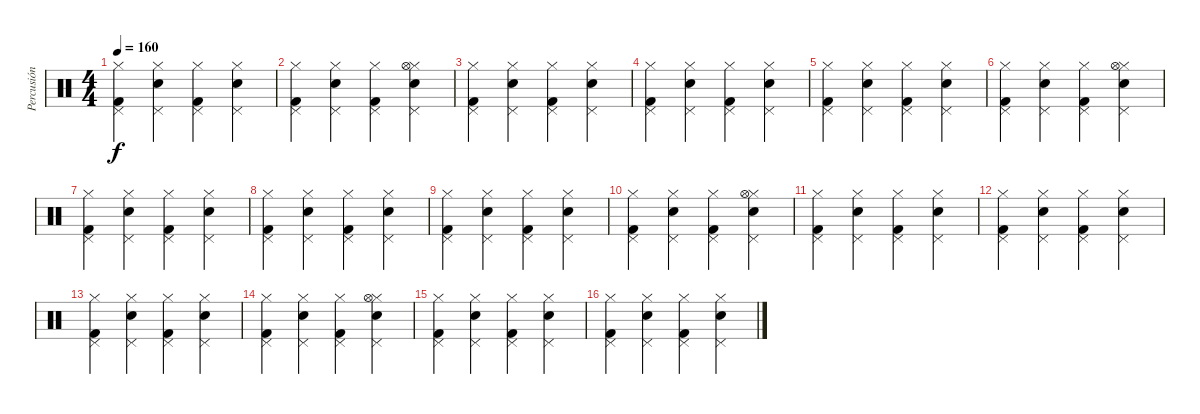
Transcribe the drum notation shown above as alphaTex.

\track ("Percusión" "Percusión") {instrument percussion}
\staff {score}
\articulation defaults
\ts (4 4)
\tempo 160
\clef neutral
\ks c
("Hi-Hat (closed)" "Kick (hit) 2" "Pedal Hi-Hat (hit)").4{dy f} ("Hi-Hat (closed)" "Snare (hit) 2" "Pedal Hi-Hat (hit)").4 ("Hi-Hat (closed)" "Kick (hit) 2" "Pedal Hi-Hat (hit)").4 ("Hi-Hat (closed)" "Snare (hit) 2" "Pedal Hi-Hat (hit)").4 |
("Hi-Hat (closed)" "Kick (hit) 2" "Pedal Hi-Hat (hit)").4 ("Hi-Hat (closed)" "Snare (hit) 2" "Pedal Hi-Hat (hit)").4 ("Hi-Hat (closed)" "Kick (hit) 2" "Pedal Hi-Hat (hit)").4 ("Hi-Hat (closed)" "Snare (hit) 2" "Pedal Hi-Hat (hit)" "Hi-Hat (open)").4 |
("Hi-Hat (closed)" "Kick (hit) 2" "Pedal Hi-Hat (hit)").4 ("Hi-Hat (closed)" "Snare (hit) 2" "Pedal Hi-Hat (hit)").4 ("Hi-Hat (closed)" "Kick (hit) 2" "Pedal Hi-Hat (hit)").4 ("Hi-Hat (closed)" "Snare (hit) 2" "Pedal Hi-Hat (hit)").4 |
("Hi-Hat (closed)" "Kick (hit) 2" "Pedal Hi-Hat (hit)").4 ("Hi-Hat (closed)" "Snare (hit) 2" "Pedal Hi-Hat (hit)").4 ("Hi-Hat (closed)" "Kick (hit) 2" "Pedal Hi-Hat (hit)").4 ("Hi-Hat (closed)" "Snare (hit) 2" "Pedal Hi-Hat (hit)").4 |
("Hi-Hat (closed)" "Kick (hit) 2" "Pedal Hi-Hat (hit)").4 ("Hi-Hat (closed)" "Snare (hit) 2" "Pedal Hi-Hat (hit)").4 ("Hi-Hat (closed)" "Kick (hit) 2" "Pedal Hi-Hat (hit)").4 ("Hi-Hat (closed)" "Snare (hit) 2" "Pedal Hi-Hat (hit)").4 |
("Hi-Hat (closed)" "Kick (hit) 2" "Pedal Hi-Hat (hit)").4 ("Hi-Hat (closed)" "Snare (hit) 2" "Pedal Hi-Hat (hit)").4 ("Hi-Hat (closed)" "Kick (hit) 2" "Pedal Hi-Hat (hit)").4 ("Hi-Hat (closed)" "Snare (hit) 2" "Pedal Hi-Hat (hit)" "Hi-Hat (open)").4 |
("Hi-Hat (closed)" "Kick (hit) 2" "Pedal Hi-Hat (hit)").4 ("Hi-Hat (closed)" "Snare (hit) 2" "Pedal Hi-Hat (hit)").4 ("Hi-Hat (closed)" "Kick (hit) 2" "Pedal Hi-Hat (hit)").4 ("Hi-Hat (closed)" "Snare (hit) 2" "Pedal Hi-Hat (hit)").4 |
("Hi-Hat (closed)" "Kick (hit) 2" "Pedal Hi-Hat (hit)").4 ("Hi-Hat (closed)" "Snare (hit) 2" "Pedal Hi-Hat (hit)").4 ("Hi-Hat (closed)" "Kick (hit) 2" "Pedal Hi-Hat (hit)").4 ("Hi-Hat (closed)" "Snare (hit) 2" "Pedal Hi-Hat (hit)").4 |
("Hi-Hat (closed)" "Kick (hit) 2" "Pedal Hi-Hat (hit)").4 ("Hi-Hat (closed)" "Snare (hit) 2" "Pedal Hi-Hat (hit)").4 ("Hi-Hat (closed)" "Kick (hit) 2" "Pedal Hi-Hat (hit)").4 ("Hi-Hat (closed)" "Snare (hit) 2" "Pedal Hi-Hat (hit)").4 |
("Hi-Hat (closed)" "Kick (hit) 2" "Pedal Hi-Hat (hit)").4 ("Hi-Hat (closed)" "Snare (hit) 2" "Pedal Hi-Hat (hit)").4 ("Hi-Hat (closed)" "Kick (hit) 2" "Pedal Hi-Hat (hit)").4 ("Hi-Hat (closed)" "Snare (hit) 2" "Pedal Hi-Hat (hit)" "Hi-Hat (open)").4 |
("Hi-Hat (closed)" "Kick (hit) 2" "Pedal Hi-Hat (hit)").4 ("Hi-Hat (closed)" "Snare (hit) 2" "Pedal Hi-Hat (hit)").4 ("Hi-Hat (closed)" "Kick (hit) 2" "Pedal Hi-Hat (hit)").4 ("Hi-Hat (closed)" "Snare (hit) 2" "Pedal Hi-Hat (hit)").4 |
("Hi-Hat (closed)" "Kick (hit) 2" "Pedal Hi-Hat (hit)").4 ("Hi-Hat (closed)" "Snare (hit) 2" "Pedal Hi-Hat (hit)").4 ("Hi-Hat (closed)" "Kick (hit) 2" "Pedal Hi-Hat (hit)").4 ("Hi-Hat (closed)" "Snare (hit) 2" "Pedal Hi-Hat (hit)").4 |
("Hi-Hat (closed)" "Kick (hit) 2" "Pedal Hi-Hat (hit)").4 ("Hi-Hat (closed)" "Snare (hit) 2" "Pedal Hi-Hat (hit)").4 ("Hi-Hat (closed)" "Kick (hit) 2" "Pedal Hi-Hat (hit)").4 ("Hi-Hat (closed)" "Snare (hit) 2" "Pedal Hi-Hat (hit)").4 |
("Hi-Hat (closed)" "Kick (hit) 2" "Pedal Hi-Hat (hit)").4 ("Hi-Hat (closed)" "Snare (hit) 2" "Pedal Hi-Hat (hit)").4 ("Hi-Hat (closed)" "Kick (hit) 2" "Pedal Hi-Hat (hit)").4 ("Hi-Hat (closed)" "Snare (hit) 2" "Pedal Hi-Hat (hit)" "Hi-Hat (open)").4 |
("Hi-Hat (closed)" "Kick (hit) 2" "Pedal Hi-Hat (hit)").4 ("Hi-Hat (closed)" "Snare (hit) 2" "Pedal Hi-Hat (hit)").4 ("Hi-Hat (closed)" "Kick (hit) 2" "Pedal Hi-Hat (hit)").4 ("Hi-Hat (closed)" "Snare (hit) 2" "Pedal Hi-Hat (hit)").4 |
("Hi-Hat (closed)" "Kick (hit) 2" "Pedal Hi-Hat (hit)").4 ("Hi-Hat (closed)" "Snare (hit) 2" "Pedal Hi-Hat (hit)").4 ("Hi-Hat (closed)" "Kick (hit) 2" "Pedal Hi-Hat (hit)").4 ("Hi-Hat (closed)" "Snare (hit) 2" "Pedal Hi-Hat (hit)").4
